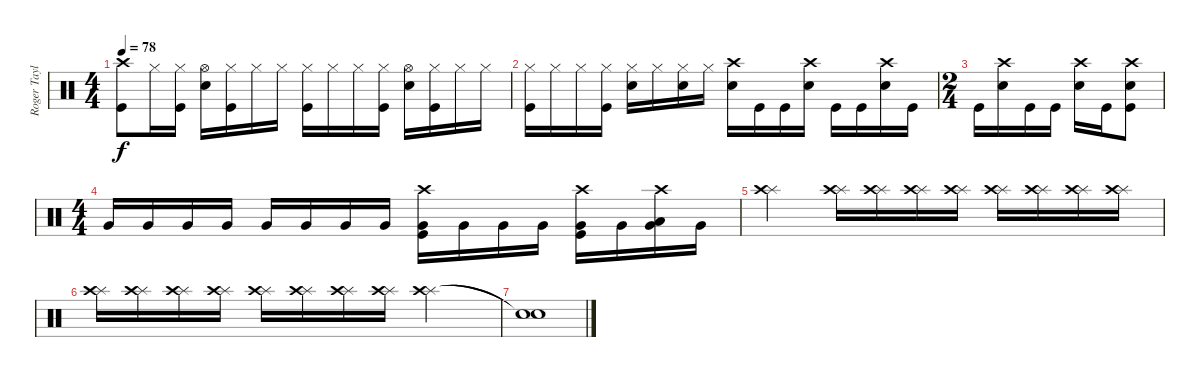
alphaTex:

\track ("Roger Taylor - Drums" "Roger Tayl") {instrument percussion}
\staff {score}
\articulation defaults
\ts (4 4)
\tempo 78
\clef neutral
\ks c
("Crash high (hit)" "Kick (hit)").8{dy f} "Hi-Hat (closed)".16 ("Hi-Hat (closed)" "Kick (hit)").16 ("Hi-Hat (open)" "Electric Snare (hit)").16 ("Hi-Hat (closed)" "Kick (hit)").16 "Hi-Hat (closed)".16 "Hi-Hat (closed)".16 ("Hi-Hat (closed)" "Kick (hit)").16 "Hi-Hat (closed)".16 "Hi-Hat (closed)".16 ("Hi-Hat (closed)" "Kick (hit)").16 ("Electric Snare (hit)" "Hi-Hat (open)").16 ("Hi-Hat (closed)" "Kick (hit)").16 "Hi-Hat (closed)".16 "Hi-Hat (closed)".16 |
("Hi-Hat (closed)" "Kick (hit)").16 "Hi-Hat (closed)".16 "Hi-Hat (closed)".16 ("Hi-Hat (closed)" "Kick (hit)").16 ("Hi-Hat (closed)" "Electric Snare (hit)").16 "Hi-Hat (closed)".16 ("Hi-Hat (closed)" "Electric Snare (hit)").16 "Hi-Hat (closed)".16 ("Electric Snare (hit)" "Crash high (hit)").16 "Kick (hit)".16 "Kick (hit)".16 ("Electric Snare (hit)" "Crash high (hit)").16 "Kick (hit)".16 "Kick (hit)".16 ("Electric Snare (hit)" "Crash high (hit)").16 "Kick (hit)".16 |
\ts (2 4)
"Kick (hit)".16 ("Electric Snare (hit)" "Crash high (hit)").16 "Kick (hit)".16 "Kick (hit)".16 ("Electric Snare (hit)" "Crash high (hit)").16 "Kick (hit)".16 ("Crash high (hit)" "Electric Snare (hit)" "Kick (hit)").8 |
\ts (4 4)
"Very Low Tom (hit)".16 "Very Low Tom (hit)".16 "Very Low Tom (hit)".16 "Very Low Tom (hit)".16 "Very Low Tom (hit)".16 "Very Low Tom (hit)".16 "Very Low Tom (hit)".16 "Very Low Tom (hit)".16 ("Crash high (hit)" "Very Low Tom (hit)" "Kick (hit)").16 "Very Low Tom (hit)".16 "Very Low Tom (hit)".16 "Very Low Tom (hit)".16 ("Crash high (hit)" "Very Low Tom (hit)" "Kick (hit)").16 "Very Low Tom (hit)".16 ("Crash high (hit)" "Very Low Tom (hit)" "Low Tom (hit)").16 "Very Low Tom (hit)".16 |
("Splash (hit)" "Crash high (hit)").2 ("Splash (hit)" "Crash high (hit)").16{volume 7} ("Splash (hit)" "Crash high (hit)").16 ("Splash (hit)" "Crash high (hit)").16 ("Splash (hit)" "Crash high (hit)").16 ("Splash (hit)" "Crash high (hit)").16 ("Splash (hit)" "Crash high (hit)").16 ("Splash (hit)" "Crash high (hit)").16 ("Splash (hit)" "Crash high (hit)").16 |
("Splash (hit)" "Crash high (hit)").16 ("Splash (hit)" "Crash high (hit)").16 ("Splash (hit)" "Crash high (hit)").16 ("Splash (hit)" "Crash high (hit)").16 ("Splash (hit)" "Crash high (hit)").16 ("Splash (hit)" "Crash high (hit)").16 ("Splash (hit)" "Crash high (hit)").16 ("Splash (hit)" "Crash high (hit)").16 ("Splash (hit)" "Crash high (hit)").2 |
("Snare (hit)"{t} "Snare (hit)"{t}).1
